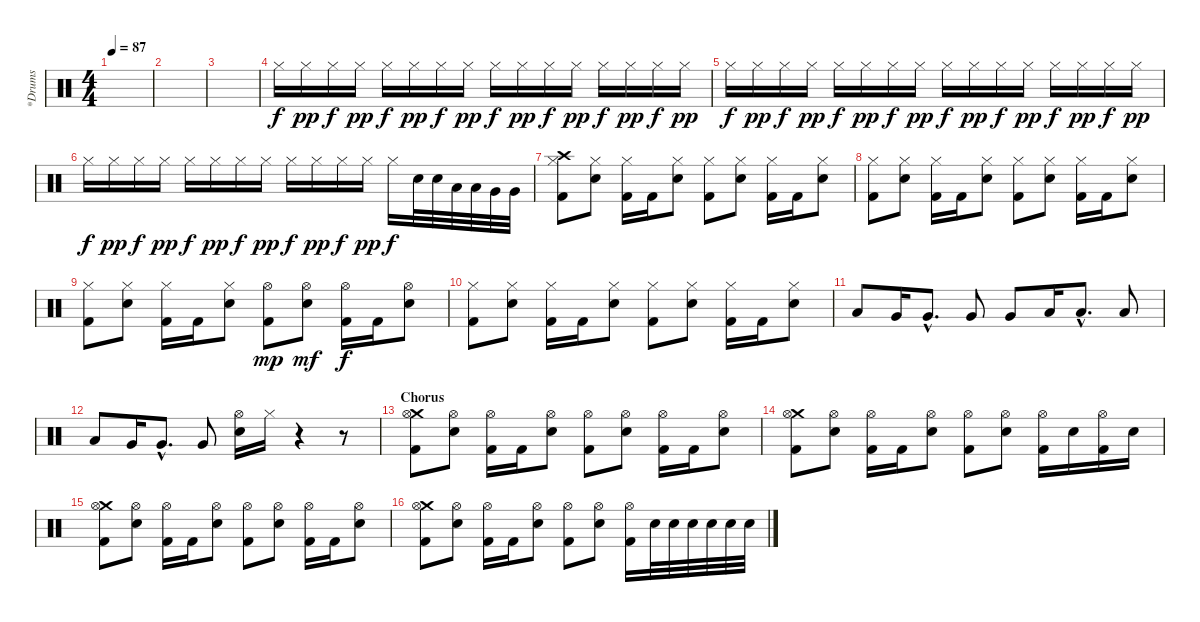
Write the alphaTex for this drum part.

\track ("*Drums" "*Drums") {instrument percussion}
\staff {score}
\articulation defaults
\ts (4 4)
\tempo 87
\clef neutral
\ks c
|
|
|
"Hi-Hat (closed)".16 "Hi-Hat (closed)".16{dy pp} "Hi-Hat (closed)".16{dy f} "Hi-Hat (closed)".16{dy pp} "Hi-Hat (closed)".16{dy f} "Hi-Hat (closed)".16{dy pp} "Hi-Hat (closed)".16{dy f} "Hi-Hat (closed)".16{dy pp} "Hi-Hat (closed)".16{dy f} "Hi-Hat (closed)".16{dy pp} "Hi-Hat (closed)".16{dy f} "Hi-Hat (closed)".16{dy pp} "Hi-Hat (closed)".16{dy f} "Hi-Hat (closed)".16{dy pp} "Hi-Hat (closed)".16{dy f} "Hi-Hat (closed)".16{dy pp} |
"Hi-Hat (closed)".16{dy f} "Hi-Hat (closed)".16{dy pp} "Hi-Hat (closed)".16{dy f} "Hi-Hat (closed)".16{dy pp} "Hi-Hat (closed)".16{dy f} "Hi-Hat (closed)".16{dy pp} "Hi-Hat (closed)".16{dy f} "Hi-Hat (closed)".16{dy pp} "Hi-Hat (closed)".16{dy f} "Hi-Hat (closed)".16{dy pp} "Hi-Hat (closed)".16{dy f} "Hi-Hat (closed)".16{dy pp} "Hi-Hat (closed)".16{dy f} "Hi-Hat (closed)".16{dy pp} "Hi-Hat (closed)".16{dy f} "Hi-Hat (closed)".16{dy pp} |
"Hi-Hat (closed)".16{dy f} "Hi-Hat (closed)".16{dy pp} "Hi-Hat (closed)".16{dy f} "Hi-Hat (closed)".16{dy pp} "Hi-Hat (closed)".16{dy f} "Hi-Hat (closed)".16{dy pp} "Hi-Hat (closed)".16{dy f} "Hi-Hat (closed)".16{dy pp} "Hi-Hat (closed)".16{dy f} "Hi-Hat (closed)".16{dy pp} "Hi-Hat (closed)".16{dy f} "Hi-Hat (closed)".16{dy pp} "Hi-Hat (closed)".16{dy f} "Electric Snare (hit)".32 "Electric Snare (hit)".32 "Low Tom (hit)".32 "Low Tom (hit)".32 "Very Low Tom (hit)".32 "Very Low Tom (hit)".32 |
("Crash high (hit)" "Hi-Hat (closed)" "Kick (hit) 2").8 ("Hi-Hat (closed)" "Electric Snare (hit)").8 ("Hi-Hat (closed)" "Kick (hit) 2").16 "Kick (hit) 2".16 ("Hi-Hat (closed)" "Electric Snare (hit)").8 ("Hi-Hat (closed)" "Kick (hit) 2").8 ("Hi-Hat (closed)" "Electric Snare (hit)").8 ("Hi-Hat (closed)" "Kick (hit) 2").16 "Kick (hit) 2".16 ("Hi-Hat (closed)" "Electric Snare (hit)").8 |
("Hi-Hat (closed)" "Kick (hit) 2").8 ("Hi-Hat (closed)" "Electric Snare (hit)").8 ("Hi-Hat (closed)" "Kick (hit) 2").16 "Kick (hit) 2".16 ("Hi-Hat (closed)" "Electric Snare (hit)").8 ("Hi-Hat (closed)" "Kick (hit) 2").8 ("Hi-Hat (closed)" "Electric Snare (hit)").8 ("Hi-Hat (closed)" "Kick (hit) 2").16 "Kick (hit) 2".16 ("Hi-Hat (closed)" "Electric Snare (hit)").8 |
("Hi-Hat (closed)" "Kick (hit) 2").8 ("Hi-Hat (closed)" "Electric Snare (hit)").8 ("Hi-Hat (closed)" "Kick (hit) 2").16 "Kick (hit) 2".16 ("Hi-Hat (closed)" "Electric Snare (hit)").8 ("Hi-Hat (open)" "Kick (hit) 2").8{dy mp} ("Hi-Hat (open)" "Electric Snare (hit)").8{dy mf} ("Hi-Hat (open)" "Kick (hit) 2").16{dy f} "Kick (hit) 2".16 ("Hi-Hat (open)" "Electric Snare (hit)").8 |
("Hi-Hat (closed)" "Kick (hit) 2").8 ("Hi-Hat (closed)" "Electric Snare (hit)").8 ("Hi-Hat (closed)" "Kick (hit) 2").16 "Kick (hit) 2".16 ("Hi-Hat (closed)" "Electric Snare (hit)").8 ("Hi-Hat (closed)" "Kick (hit) 2").8 ("Hi-Hat (closed)" "Electric Snare (hit)").8 ("Hi-Hat (closed)" "Kick (hit) 2").16 "Kick (hit) 2".16 ("Hi-Hat (closed)" "Electric Snare (hit)").8 |
"Low Tom (hit)".8 "Very Low Tom (hit)".16 "Very Low Tom (hit)"{hac}.8{d} "Very Low Tom (hit)".8 "Very Low Tom (hit)".8 "Low Floor Tom (hit)".16 "Low Floor Tom (hit)"{hac}.8{d} "Low Floor Tom (hit)".8 |
"Low Tom (hit)".8 "Very Low Tom (hit)".16 "Very Low Tom (hit)"{hac}.8{d} "Very Low Tom (hit)".8 ("Hi-Hat (open)" "Electric Snare (hit)").16 "Hi-Hat (closed)".16 r.4 r.8 |
\section ("" "Chorus")
("Crash medium (hit)" "Hi-Hat (open)" "Kick (hit) 2").8 ("Hi-Hat (open)" "Electric Snare (hit)").8 ("Hi-Hat (open)" "Kick (hit) 2").16 "Kick (hit) 2".16 ("Hi-Hat (open)" "Electric Snare (hit)").8 ("Hi-Hat (open)" "Kick (hit) 2").8 ("Hi-Hat (open)" "Electric Snare (hit)").8 ("Hi-Hat (open)" "Kick (hit) 2").16 "Kick (hit) 2".16 ("Hi-Hat (open)" "Electric Snare (hit)").8 |
("Crash medium (hit)" "Hi-Hat (open)" "Kick (hit) 2").8 ("Hi-Hat (open)" "Electric Snare (hit)").8 ("Hi-Hat (open)" "Kick (hit) 2").16 "Kick (hit) 2".16 ("Hi-Hat (open)" "Electric Snare (hit)").8 ("Hi-Hat (open)" "Kick (hit) 2").8 ("Hi-Hat (open)" "Electric Snare (hit)").8 ("Hi-Hat (open)" "Kick (hit) 2").16 "Electric Snare (hit)".16 ("Hi-Hat (open)" "Kick (hit) 2").16 "Electric Snare (hit)".16 |
("Crash medium (hit)" "Hi-Hat (open)" "Kick (hit) 2").8 ("Hi-Hat (open)" "Electric Snare (hit)").8 ("Hi-Hat (open)" "Kick (hit) 2").16 "Kick (hit) 2".16 ("Hi-Hat (open)" "Electric Snare (hit)").8 ("Hi-Hat (open)" "Kick (hit) 2").8 ("Hi-Hat (open)" "Electric Snare (hit)").8 ("Hi-Hat (open)" "Kick (hit) 2").16 "Kick (hit) 2".16 ("Hi-Hat (open)" "Electric Snare (hit)").8 |
("Crash medium (hit)" "Hi-Hat (open)" "Kick (hit) 2").8 ("Hi-Hat (open)" "Electric Snare (hit)").8 ("Hi-Hat (open)" "Kick (hit) 2").16 "Kick (hit) 2".16 ("Hi-Hat (open)" "Electric Snare (hit)").8 ("Hi-Hat (open)" "Kick (hit) 2").8 ("Hi-Hat (open)" "Electric Snare (hit)").8 ("Hi-Hat (open)" "Kick (hit) 2").16 "Electric Snare (hit)".32 "Electric Snare (hit)".32 "Electric Snare (hit)".32 "Electric Snare (hit)".32 "Electric Snare (hit)".32 "Electric Snare (hit)".32
